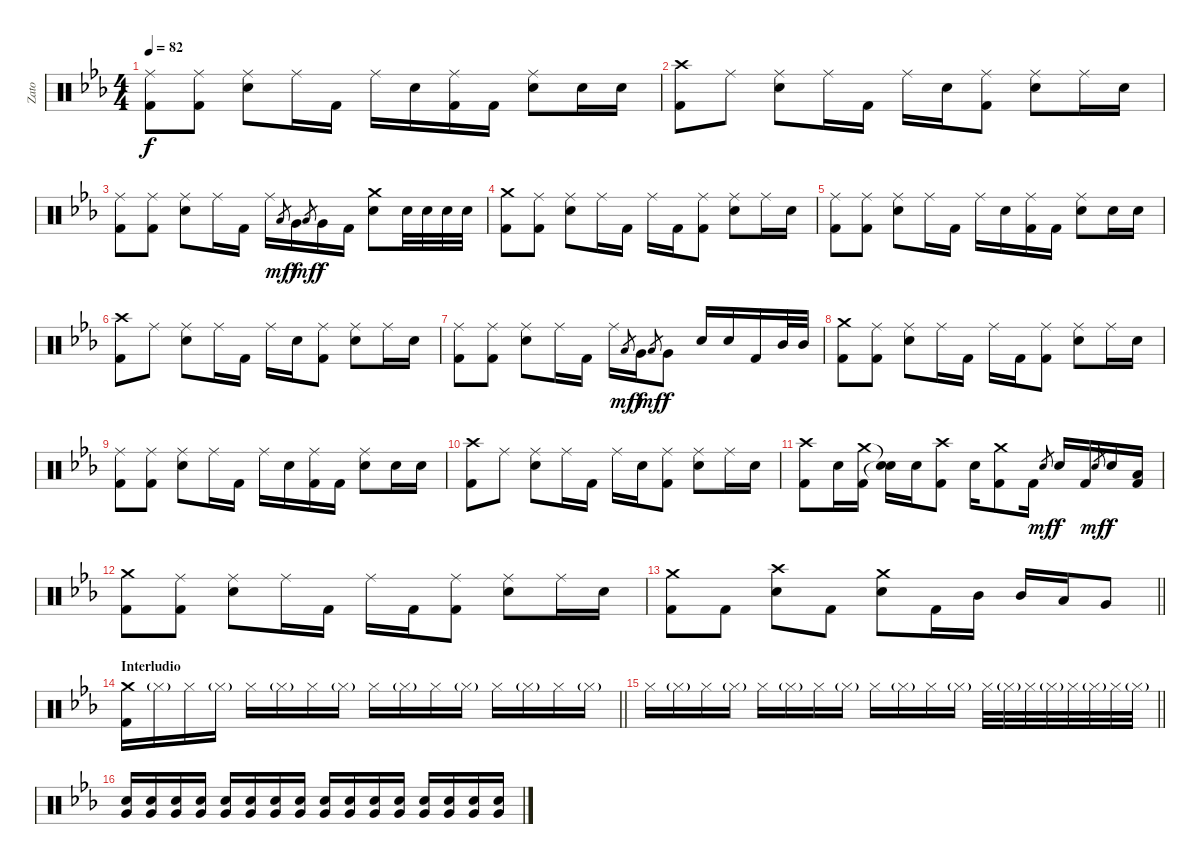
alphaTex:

\track ("Zato" "Zato") {instrument percussion}
\staff {score}
\articulation defaults
\ts (4 4)
\tempo 82
\clef neutral
\ks cminor
("Ride (middle)" "Kick (hit) 2").8{dy f} ("Ride (middle)" "Kick (hit) 2").8 ("Ride (middle)" "Electric Snare (hit)").8 "Ride (middle)".16 "Kick (hit) 2".16 "Ride (middle)".16 "Electric Snare (hit)".16 ("Ride (middle)" "Kick (hit) 2").16 "Kick (hit) 2".16 ("Ride (middle)" "Electric Snare (hit)").8 "Electric Snare (hit)".16 "Electric Snare (hit)".16 |
("Crash high (hit)" "Kick (hit) 2").8 "Ride (middle)".8 ("Ride (middle)" "Electric Snare (hit)").8 "Ride (middle)".16 "Kick (hit) 2".16 "Ride (middle)".16 "Electric Snare (hit)".16 ("Ride (middle)" "Kick (hit) 2").8 ("Ride (middle)" "Electric Snare (hit)").8 "Ride (middle)".16 "Electric Snare (hit)".16 |
("Ride (middle)" "Kick (hit) 2").8 ("Ride (middle)" "Kick (hit) 2").8 ("Ride (middle)" "Electric Snare (hit)").8 "Ride (middle)".16 "Kick (hit) 2".16 "Ride (middle)".16 "Low Tom (hit)".8{gr dy mf} "Very Low Tom (hit)".16{dy f} "Low Tom (hit)".8{gr dy mf} "Very Low Tom (hit)".16{dy f} "Kick (hit) 2".16 ("Crash medium (hit)" "Electric Snare (hit)").8 "Electric Snare (hit)".32 "Electric Snare (hit)".32 "Electric Snare (hit)".32 "Electric Snare (hit)".32 |
("Crash medium (hit)" "Kick (hit) 2").8 ("Ride (middle)" "Kick (hit) 2").8 ("Ride (middle)" "Electric Snare (hit)").8 "Ride (middle)".16 "Kick (hit) 2".16 "Ride (middle)".16 "Kick (hit) 2".16 ("Ride (middle)" "Kick (hit) 2").8 ("Ride (middle)" "Electric Snare (hit)").8 "Ride (middle)".16 "Electric Snare (hit)".16 |
("Ride (middle)" "Kick (hit) 2").8 ("Ride (middle)" "Kick (hit) 2").8 ("Ride (middle)" "Electric Snare (hit)").8 "Ride (middle)".16 "Kick (hit) 2".16 "Ride (middle)".16 "Electric Snare (hit)".16 ("Ride (middle)" "Kick (hit) 2").16 "Kick (hit) 2".16 ("Ride (middle)" "Electric Snare (hit)").8 "Electric Snare (hit)".16 "Electric Snare (hit)".16 |
("Crash high (hit)" "Kick (hit) 2").8 "Ride (middle)".8 ("Ride (middle)" "Electric Snare (hit)").8 "Ride (middle)".16 "Kick (hit) 2".16 "Ride (middle)".16 "Electric Snare (hit)".16 ("Ride (middle)" "Kick (hit) 2").8 ("Ride (middle)" "Electric Snare (hit)").8 "Ride (middle)".16 "Electric Snare (hit)".16 |
("Ride (middle)" "Kick (hit) 2").8 ("Ride (middle)" "Kick (hit) 2").8 ("Ride (middle)" "Electric Snare (hit)").8 "Ride (middle)".16 "Kick (hit) 2".16 "Ride (middle)".16 "Low Tom (hit)".8{gr dy mf} "Very Low Tom (hit)".16{dy f} "Low Tom (hit)".8{gr dy mf} "Very Low Tom (hit)".8{dy f} "Electric Snare (hit)".16 "Electric Snare (hit)".16 "Kick (hit) 2".16 "Mid Tom (hit)".32 "Mid Tom (hit)".32 |
("Crash medium (hit)" "Kick (hit) 2").8 ("Ride (middle)" "Kick (hit) 2").8 ("Ride (middle)" "Electric Snare (hit)").8 "Ride (middle)".16 "Kick (hit) 2".16 "Ride (middle)".16 "Kick (hit) 2".16 ("Ride (middle)" "Kick (hit) 2").8 ("Ride (middle)" "Electric Snare (hit)").8 "Ride (middle)".16 "Electric Snare (hit)".16 |
("Ride (middle)" "Kick (hit) 2").8 ("Ride (middle)" "Kick (hit) 2").8 ("Ride (middle)" "Electric Snare (hit)").8 "Ride (middle)".16 "Kick (hit) 2".16 "Ride (middle)".16 "Electric Snare (hit)".16 ("Ride (middle)" "Kick (hit) 2").16 "Kick (hit) 2".16 ("Ride (middle)" "Electric Snare (hit)").8 "Electric Snare (hit)".16 "Electric Snare (hit)".16 |
("Crash high (hit)" "Kick (hit) 2").8 "Ride (middle)".8 ("Ride (middle)" "Electric Snare (hit)").8 "Ride (middle)".16 "Kick (hit) 2".16 "Ride (middle)".16 "Electric Snare (hit)".16 ("Ride (middle)" "Kick (hit) 2").8 ("Ride (middle)" "Electric Snare (hit)").8 "Ride (middle)".16 "Electric Snare (hit)".16 |
("Crash high (hit)" "Kick (hit) 2").8 "Electric Snare (hit)".16 ("Crash medium (hit)" "Kick (hit) 2").16 ("Snare (hit)"{t} "Snare (hit)"{t}).16 "Electric Snare (hit)".16 ("Crash high (hit)" "Kick (hit) 2").8 "Electric Snare (hit)".16 ("Crash medium (hit)" "Kick (hit) 2").8 "Kick (hit) 2".16 "Electric Snare (hit)".8{gr dy mf} "Electric Snare (hit)".16{dy f} "Kick (hit) 2".16 "Electric Snare (hit)".8{gr dy mf} "Electric Snare (hit)".16{dy f} ("Low Tom (hit)" "Kick (hit) 2").16 |
("Crash medium (hit)" "Kick (hit) 2").8 ("Ride (middle)" "Kick (hit) 2").8 ("Ride (middle)" "Electric Snare (hit)").8 "Ride (middle)".16 "Kick (hit) 2".16 "Ride (middle)".16 "Kick (hit) 2".16 ("Ride (middle)" "Kick (hit) 2").8 ("Ride (middle)" "Electric Snare (hit)").8 "Ride (middle)".16 "Electric Snare (hit)".16 |
\barLineRight lightlight
("Crash medium (hit)" "Kick (hit) 2").8 "Kick (hit) 2".8 ("Crash high (hit)" "Electric Snare (hit)").8 "Kick (hit) 2".8 ("Crash medium (hit)" "Electric Snare (hit)").8 "Kick (hit) 2".16 "Mid Tom (hit)".16 "Mid Tom (hit)".16 "Low Tom (hit)".16 "Very Low Tom (hit)".8 |
\section ("" "Interludio")
\barLineRight lightlight
("Crash medium (hit)" "Kick (hit) 2").16 "Hi-Hat (closed)"{g}.16 "Hi-Hat (closed)".16 "Hi-Hat (closed)"{g}.16 "Hi-Hat (closed)".16 "Hi-Hat (closed)"{g}.16 "Hi-Hat (closed)".16 "Hi-Hat (closed)"{g}.16 "Hi-Hat (closed)".16 "Hi-Hat (closed)"{g}.16 "Hi-Hat (closed)".16 "Hi-Hat (closed)"{g}.16 "Hi-Hat (closed)".16 "Hi-Hat (closed)"{g}.16 "Hi-Hat (closed)".16 "Hi-Hat (closed)"{g}.16 |
\barLineRight lightlight "Hi-Hat (closed)".16 "Hi-Hat (closed)"{g}.16 "Hi-Hat (closed)".16 "Hi-Hat (closed)"{g}.16 "Hi-Hat (closed)".16 "Hi-Hat (closed)"{g}.16 "Hi-Hat (closed)".16 "Hi-Hat (closed)"{g}.16 "Hi-Hat (closed)".16 "Hi-Hat (closed)"{g}.16 "Hi-Hat (closed)".16 "Hi-Hat (closed)"{g}.16 "Hi-Hat (closed)".32 "Hi-Hat (closed)"{g}.32 "Hi-Hat (closed)".32 "Hi-Hat (closed)"{g}.32 "Hi-Hat (closed)".32 "Hi-Hat (closed)"{g}.32 "Hi-Hat (closed)".32 "Hi-Hat (closed)"{g}.32{volume 4}
|
("Very Low Tom (hit)" "Electric Snare (hit)").16{volume 11} ("Very Low Tom (hit)" "Electric Snare (hit)").16 ("Very Low Tom (hit)" "Electric Snare (hit)").16 ("Very Low Tom (hit)" "Electric Snare (hit)").16 ("Very Low Tom (hit)" "Electric Snare (hit)").16 ("Very Low Tom (hit)" "Electric Snare (hit)").16 ("Very Low Tom (hit)" "Electric Snare (hit)").16 ("Very Low Tom (hit)" "Electric Snare (hit)").16 ("Very Low Tom (hit)" "Electric Snare (hit)").16 ("Very Low Tom (hit)" "Electric Snare (hit)").16 ("Very Low Tom (hit)" "Electric Snare (hit)").16 ("Very Low Tom (hit)" "Electric Snare (hit)").16 ("Very Low Tom (hit)" "Electric Snare (hit)").16 ("Very Low Tom (hit)" "Electric Snare (hit)").16 ("Very Low Tom (hit)" "Electric Snare (hit)").16 ("Very Low Tom (hit)" "Electric Snare (hit)").16
